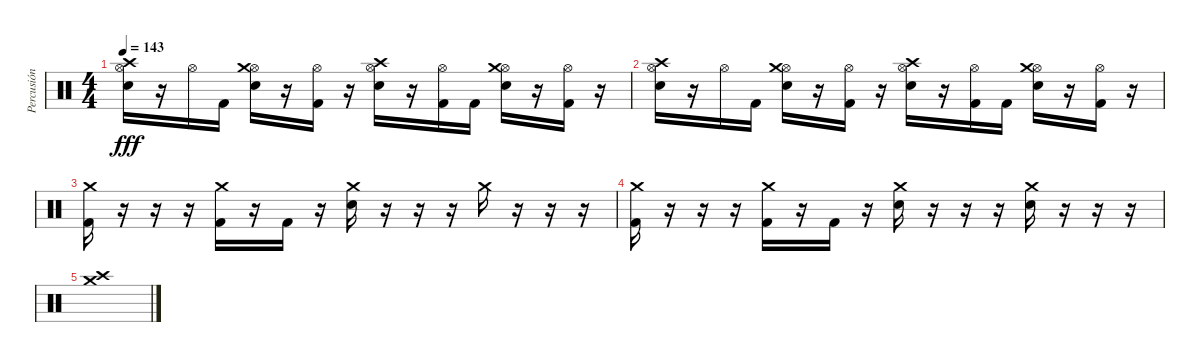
\track ("Percusión" "Percusión") {instrument percussion}
\staff {score}
\articulation defaults
\ts (4 4)
\tempo 143
\clef neutral
\ks c
("Hi-Hat (open)" "Snare (hit) 2" "Crash high (hit)").16{dy fff} r.16 "Hi-Hat (open)".16 "Kick (hit) 2".16 ("Hi-Hat (open)" "Snare (hit) 2" "Crash medium (hit)").16 r.16 ("Hi-Hat (open)" "Kick (hit) 2").16 r.16 ("Hi-Hat (open)" "Snare (hit) 2" "Crash high (hit)").16 r.16 ("Hi-Hat (open)" "Kick (hit) 2").16 "Kick (hit) 2".16 ("Hi-Hat (open)" "Snare (hit) 2" "Crash medium (hit)").16 r.16 ("Hi-Hat (open)" "Kick (hit) 2").16 r.16 |
("Hi-Hat (open)" "Snare (hit) 2" "Crash high (hit)").16 r.16 "Hi-Hat (open)".16 "Kick (hit) 2".16 ("Hi-Hat (open)" "Snare (hit) 2" "Crash medium (hit)").16 r.16 ("Hi-Hat (open)" "Kick (hit) 2").16 r.16 ("Hi-Hat (open)" "Snare (hit) 2" "Crash high (hit)").16 r.16 ("Hi-Hat (open)" "Kick (hit) 2").16 "Kick (hit) 2".16 ("Hi-Hat (open)" "Snare (hit) 2" "Crash medium (hit)").16 r.16 ("Hi-Hat (open)" "Kick (hit) 2").16 r.16 |
("Crash medium (hit)" "Kick (hit) 2").16 r.16 r.16 r.16 ("Crash medium (hit)" "Kick (hit) 2").16 r.16 "Kick (hit) 2".16 r.16 ("Crash medium (hit)" "Snare (hit) 2").16 r.16 r.16 r.16 "Crash medium (hit)".16 r.16 r.16 r.16 |
("Crash medium (hit)" "Kick (hit) 2").16 r.16 r.16 r.16 ("Crash medium (hit)" "Kick (hit) 2").16 r.16 "Kick (hit) 2".16 r.16 ("Crash medium (hit)" "Snare (hit) 2").16 r.16 r.16 r.16 ("Crash medium (hit)" "Snare (hit) 2").16 r.16 r.16 r.16 |
("Crash medium (hit)" "Crash high (hit)").1
